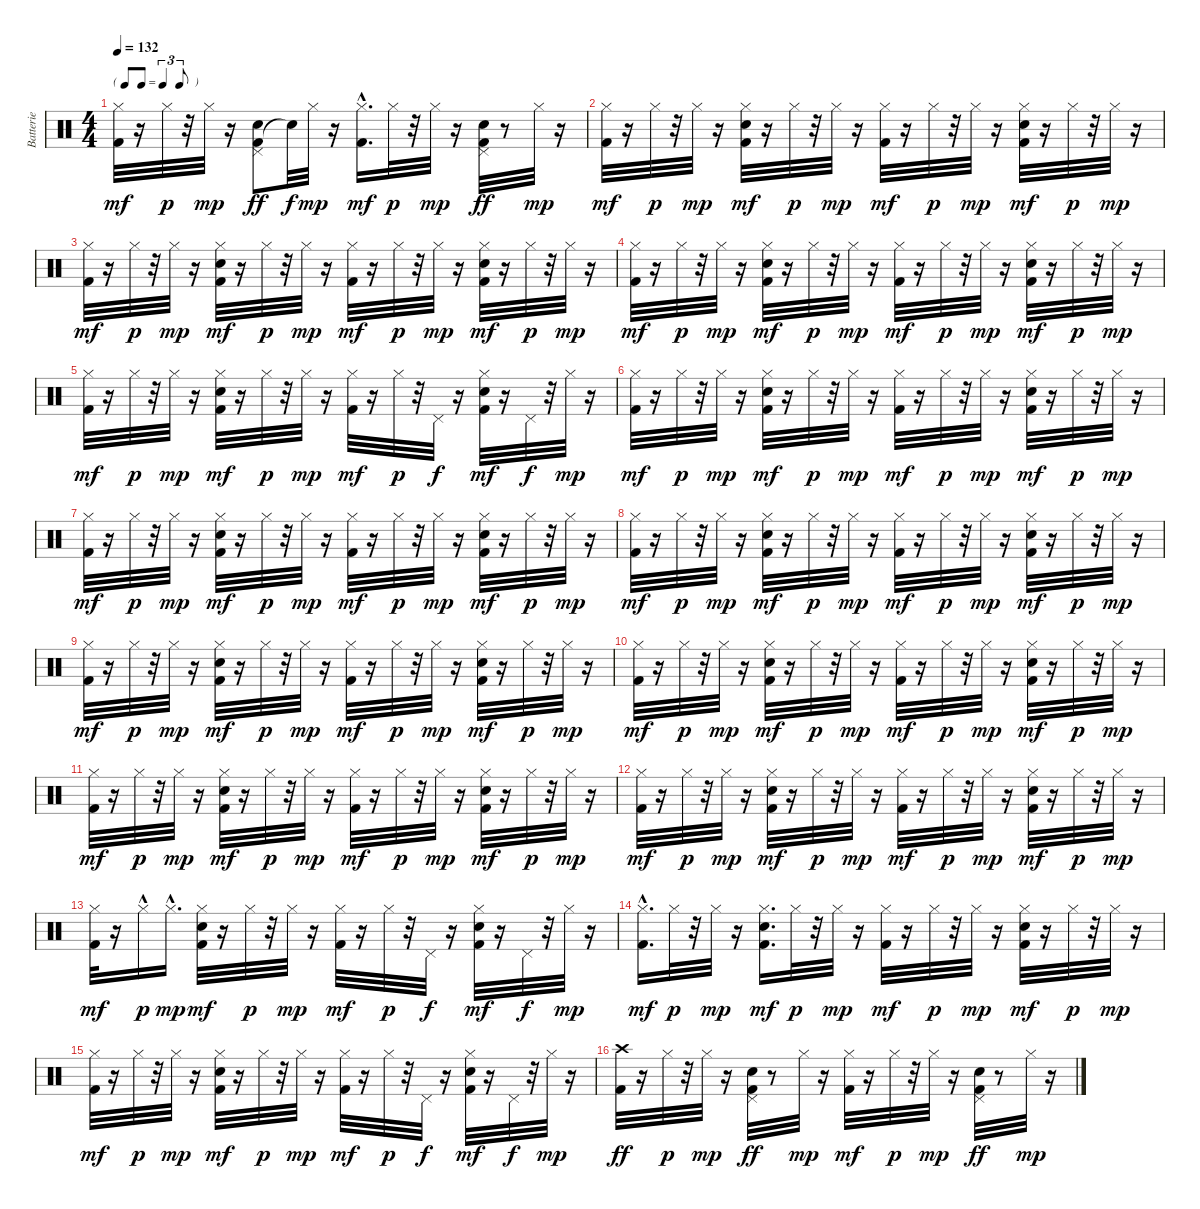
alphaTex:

\track ("Batterie" "Batterie") {instrument percussion}
\staff {score}
\articulation defaults
\ts (4 4)
\tf triplet8th
\tempo 132
\clef neutral
\ks c
("Kick (hit) 2" "Hi-Hat (closed)").32{dy mf} r.16 "Hi-Hat (closed)".32{dy p} r.32 "Hi-Hat (closed)".32{dy mp} r.16 ("Kick (hit) 2" "Snare (hit) 2" "Pedal Hi-Hat (hit)").8{dy ff} "Snare (hit)"{t}.32{dy f} "Hi-Hat (closed)".32{dy mp} r.16 ("Kick (hit) 2"{hac} "Hi-Hat (closed)").16{d dy mf} "Hi-Hat (closed)".32{dy p} r.32 "Hi-Hat (closed)".32{dy mp} r.16 ("Kick (hit) 2" "Snare (hit) 2" "Pedal Hi-Hat (hit)").32{dy ff} r.8 "Hi-Hat (closed)".32{dy mp} r.16 |
("Kick (hit) 2" "Hi-Hat (closed)").32{dy mf} r.16 "Hi-Hat (closed)".32{dy p} r.32 "Hi-Hat (closed)".32{dy mp} r.16 ("Kick (hit) 2" "Snare (hit) 2" "Hi-Hat (closed)").32{dy mf} r.16 "Hi-Hat (closed)".32{dy p} r.32 "Hi-Hat (closed)".32{dy mp} r.16 ("Kick (hit) 2" "Hi-Hat (closed)").32{dy mf} r.16 "Hi-Hat (closed)".32{dy p} r.32 "Hi-Hat (closed)".32{dy mp} r.16 ("Kick (hit) 2" "Snare (hit) 2" "Hi-Hat (closed)").32{dy mf} r.16 "Hi-Hat (closed)".32{dy p} r.32 "Hi-Hat (closed)".32{dy mp} r.16 |
("Kick (hit) 2" "Hi-Hat (closed)").32{dy mf} r.16 "Hi-Hat (closed)".32{dy p} r.32 "Hi-Hat (closed)".32{dy mp} r.16 ("Kick (hit) 2" "Snare (hit) 2" "Hi-Hat (closed)").32{dy mf} r.16 "Hi-Hat (closed)".32{dy p} r.32 "Hi-Hat (closed)".32{dy mp} r.16 ("Kick (hit) 2" "Hi-Hat (closed)").32{dy mf} r.16 "Hi-Hat (closed)".32{dy p} r.32 "Hi-Hat (closed)".32{dy mp} r.16 ("Kick (hit) 2" "Snare (hit) 2" "Hi-Hat (closed)").32{dy mf} r.16 "Hi-Hat (closed)".32{dy p} r.32 "Hi-Hat (closed)".32{dy mp} r.16 |
("Kick (hit) 2" "Hi-Hat (closed)").32{dy mf} r.16 "Hi-Hat (closed)".32{dy p} r.32 "Hi-Hat (closed)".32{dy mp} r.16 ("Kick (hit) 2" "Snare (hit) 2" "Hi-Hat (closed)").32{dy mf} r.16 "Hi-Hat (closed)".32{dy p} r.32 "Hi-Hat (closed)".32{dy mp} r.16 ("Kick (hit) 2" "Hi-Hat (closed)").32{dy mf} r.16 "Hi-Hat (closed)".32{dy p} r.32 "Hi-Hat (closed)".32{dy mp} r.16 ("Kick (hit) 2" "Snare (hit) 2" "Hi-Hat (closed)").32{dy mf} r.16 "Hi-Hat (closed)".32{dy p} r.32 "Hi-Hat (closed)".32{dy mp} r.16 |
("Kick (hit) 2" "Hi-Hat (closed)").32{dy mf} r.16 "Hi-Hat (closed)".32{dy p} r.32 "Hi-Hat (closed)".32{dy mp} r.16 ("Kick (hit) 2" "Snare (hit) 2" "Hi-Hat (closed)").32{dy mf} r.16 "Hi-Hat (closed)".32{dy p} r.32 "Hi-Hat (closed)".32{dy mp} r.16 ("Kick (hit) 2" "Hi-Hat (closed)").32{dy mf} r.16 "Hi-Hat (closed)".32{dy p} r.32 "Pedal Hi-Hat (hit)".32{dy f} r.16 ("Kick (hit) 2" "Snare (hit) 2" "Hi-Hat (closed)").32{dy mf} r.16 "Pedal Hi-Hat (hit)".32{dy f} r.32 "Hi-Hat (closed)".32{dy mp} r.16 |
("Kick (hit) 2" "Hi-Hat (closed)").32{dy mf} r.16 "Hi-Hat (closed)".32{dy p} r.32 "Hi-Hat (closed)".32{dy mp} r.16 ("Kick (hit) 2" "Snare (hit) 2" "Hi-Hat (closed)").32{dy mf} r.16 "Hi-Hat (closed)".32{dy p} r.32 "Hi-Hat (closed)".32{dy mp} r.16 ("Kick (hit) 2" "Hi-Hat (closed)").32{dy mf} r.16 "Hi-Hat (closed)".32{dy p} r.32 "Hi-Hat (closed)".32{dy mp} r.16 ("Kick (hit) 2" "Snare (hit) 2" "Hi-Hat (closed)").32{dy mf} r.16 "Hi-Hat (closed)".32{dy p} r.32 "Hi-Hat (closed)".32{dy mp} r.16 |
("Kick (hit) 2" "Hi-Hat (closed)").32{dy mf} r.16 "Hi-Hat (closed)".32{dy p} r.32 "Hi-Hat (closed)".32{dy mp} r.16 ("Kick (hit) 2" "Snare (hit) 2" "Hi-Hat (closed)").32{dy mf} r.16 "Hi-Hat (closed)".32{dy p} r.32 "Hi-Hat (closed)".32{dy mp} r.16 ("Kick (hit) 2" "Hi-Hat (closed)").32{dy mf} r.16 "Hi-Hat (closed)".32{dy p} r.32 "Hi-Hat (closed)".32{dy mp} r.16 ("Kick (hit) 2" "Snare (hit) 2" "Hi-Hat (closed)").32{dy mf} r.16 "Hi-Hat (closed)".32{dy p} r.32 "Hi-Hat (closed)".32{dy mp} r.16 |
("Kick (hit) 2" "Hi-Hat (closed)").32{dy mf} r.16 "Hi-Hat (closed)".32{dy p} r.32 "Hi-Hat (closed)".32{dy mp} r.16 ("Kick (hit) 2" "Snare (hit) 2" "Hi-Hat (closed)").32{dy mf} r.16 "Hi-Hat (closed)".32{dy p} r.32 "Hi-Hat (closed)".32{dy mp} r.16 ("Kick (hit) 2" "Hi-Hat (closed)").32{dy mf} r.16 "Hi-Hat (closed)".32{dy p} r.32 "Hi-Hat (closed)".32{dy mp} r.16 ("Kick (hit) 2" "Snare (hit) 2" "Hi-Hat (closed)").32{dy mf} r.16 "Hi-Hat (closed)".32{dy p} r.32 "Hi-Hat (closed)".32{dy mp} r.16 |
("Kick (hit) 2" "Hi-Hat (closed)").32{dy mf} r.16 "Hi-Hat (closed)".32{dy p} r.32 "Hi-Hat (closed)".32{dy mp} r.16 ("Kick (hit) 2" "Snare (hit) 2" "Hi-Hat (closed)").32{dy mf} r.16 "Hi-Hat (closed)".32{dy p} r.32 "Hi-Hat (closed)".32{dy mp} r.16 ("Kick (hit) 2" "Hi-Hat (closed)").32{dy mf} r.16 "Hi-Hat (closed)".32{dy p} r.32 "Hi-Hat (closed)".32{dy mp} r.16 ("Kick (hit) 2" "Snare (hit) 2" "Hi-Hat (closed)").32{dy mf} r.16 "Hi-Hat (closed)".32{dy p} r.32 "Hi-Hat (closed)".32{dy mp} r.16 |
("Kick (hit) 2" "Hi-Hat (closed)").32{dy mf} r.16 "Hi-Hat (closed)".32{dy p} r.32 "Hi-Hat (closed)".32{dy mp} r.16 ("Kick (hit) 2" "Snare (hit) 2" "Hi-Hat (closed)").32{dy mf} r.16 "Hi-Hat (closed)".32{dy p} r.32 "Hi-Hat (closed)".32{dy mp} r.16 ("Kick (hit) 2" "Hi-Hat (closed)").32{dy mf} r.16 "Hi-Hat (closed)".32{dy p} r.32 "Hi-Hat (closed)".32{dy mp} r.16 ("Kick (hit) 2" "Snare (hit) 2" "Hi-Hat (closed)").32{dy mf} r.16 "Hi-Hat (closed)".32{dy p} r.32 "Hi-Hat (closed)".32{dy mp} r.16 |
("Kick (hit) 2" "Hi-Hat (closed)").32{dy mf} r.16 "Hi-Hat (closed)".32{dy p} r.32 "Hi-Hat (closed)".32{dy mp} r.16 ("Kick (hit) 2" "Snare (hit) 2" "Hi-Hat (closed)").32{dy mf} r.16 "Hi-Hat (closed)".32{dy p} r.32 "Hi-Hat (closed)".32{dy mp} r.16 ("Kick (hit) 2" "Hi-Hat (closed)").32{dy mf} r.16 "Hi-Hat (closed)".32{dy p} r.32 "Hi-Hat (closed)".32{dy mp} r.16 ("Kick (hit) 2" "Snare (hit) 2" "Hi-Hat (closed)").32{dy mf} r.16 "Hi-Hat (closed)".32{dy p} r.32 "Hi-Hat (closed)".32{dy mp} r.16 |
("Kick (hit) 2" "Hi-Hat (closed)").32{dy mf} r.16 "Hi-Hat (closed)".32{dy p} r.32 "Hi-Hat (closed)".32{dy mp} r.16 ("Kick (hit) 2" "Snare (hit) 2" "Hi-Hat (closed)").32{dy mf} r.16 "Hi-Hat (closed)".32{dy p} r.32 "Hi-Hat (closed)".32{dy mp} r.16 ("Kick (hit) 2" "Hi-Hat (closed)").32{dy mf} r.16 "Hi-Hat (closed)".32{dy p} r.32 "Hi-Hat (closed)".32{dy mp} r.16 ("Kick (hit) 2" "Snare (hit) 2" "Hi-Hat (closed)").32{dy mf} r.16 "Hi-Hat (closed)".32{dy p} r.32 "Hi-Hat (closed)".32{dy mp} r.16 |
("Kick (hit) 2" "Hi-Hat (closed)").32{dy mf} r.16 "Hi-Hat (closed)"{hac}.16{dy p} "Hi-Hat (closed)"{hac}.16{d dy mp} ("Kick (hit) 2" "Snare (hit) 2" "Hi-Hat (closed)").32{dy mf} r.16 "Hi-Hat (closed)".32{dy p} r.32 "Hi-Hat (closed)".32{dy mp} r.16 ("Kick (hit) 2" "Hi-Hat (closed)").32{dy mf} r.16 "Hi-Hat (closed)".32{dy p} r.32 "Pedal Hi-Hat (hit)".32{dy f} r.16 ("Kick (hit) 2" "Snare (hit) 2" "Hi-Hat (closed)").32{dy mf} r.16 "Pedal Hi-Hat (hit)".32{dy f} r.32 "Hi-Hat (closed)".32{dy mp} r.16 |
("Kick (hit) 2"{hac} "Hi-Hat (closed)").16{d dy mf} "Hi-Hat (closed)".32{dy p} r.32 "Hi-Hat (closed)".32{dy mp} r.16 ("Kick (hit) 2" "Snare (hit) 2" "Hi-Hat (closed)").16{d dy mf} "Hi-Hat (closed)".32{dy p} r.32 "Hi-Hat (closed)".32{dy mp} r.16 ("Kick (hit) 2" "Hi-Hat (closed)").32{dy mf} r.16 "Hi-Hat (closed)".32{dy p} r.32 "Hi-Hat (closed)".32{dy mp} r.16 ("Kick (hit) 2" "Snare (hit) 2" "Hi-Hat (closed)").32{dy mf} r.16 "Hi-Hat (closed)".32{dy p} r.32 "Hi-Hat (closed)".32{dy mp} r.16 |
("Kick (hit) 2" "Hi-Hat (closed)").32{dy mf} r.16 "Hi-Hat (closed)".32{dy p} r.32 "Hi-Hat (closed)".32{dy mp} r.16 ("Kick (hit) 2" "Snare (hit) 2" "Hi-Hat (closed)").32{dy mf} r.16 "Hi-Hat (closed)".32{dy p} r.32 "Hi-Hat (closed)".32{dy mp} r.16 ("Kick (hit) 2" "Hi-Hat (closed)").32{dy mf} r.16 "Hi-Hat (closed)".32{dy p} r.32 "Pedal Hi-Hat (hit)".32{dy f} r.16 ("Kick (hit) 2" "Snare (hit) 2" "Hi-Hat (closed)").32{dy mf} r.16 "Pedal Hi-Hat (hit)".32{dy f} r.32 "Hi-Hat (closed)".32{dy mp} r.16 |
("Kick (hit) 2" "Crash high (hit)").32{dy ff} r.16 "Hi-Hat (closed)".32{dy p} r.32 "Hi-Hat (closed)".32{dy mp} r.16 ("Kick (hit) 2" "Snare (hit) 2" "Pedal Hi-Hat (hit)").32{dy ff} r.8 "Hi-Hat (closed)".32{dy mp} r.16 ("Kick (hit) 2" "Hi-Hat (closed)").32{dy mf} r.16 "Hi-Hat (closed)".32{dy p} r.32 "Hi-Hat (closed)".32{dy mp} r.16 ("Kick (hit) 2" "Snare (hit) 2" "Pedal Hi-Hat (hit)").32{dy ff} r.8 "Hi-Hat (closed)".32{dy mp} r.16
